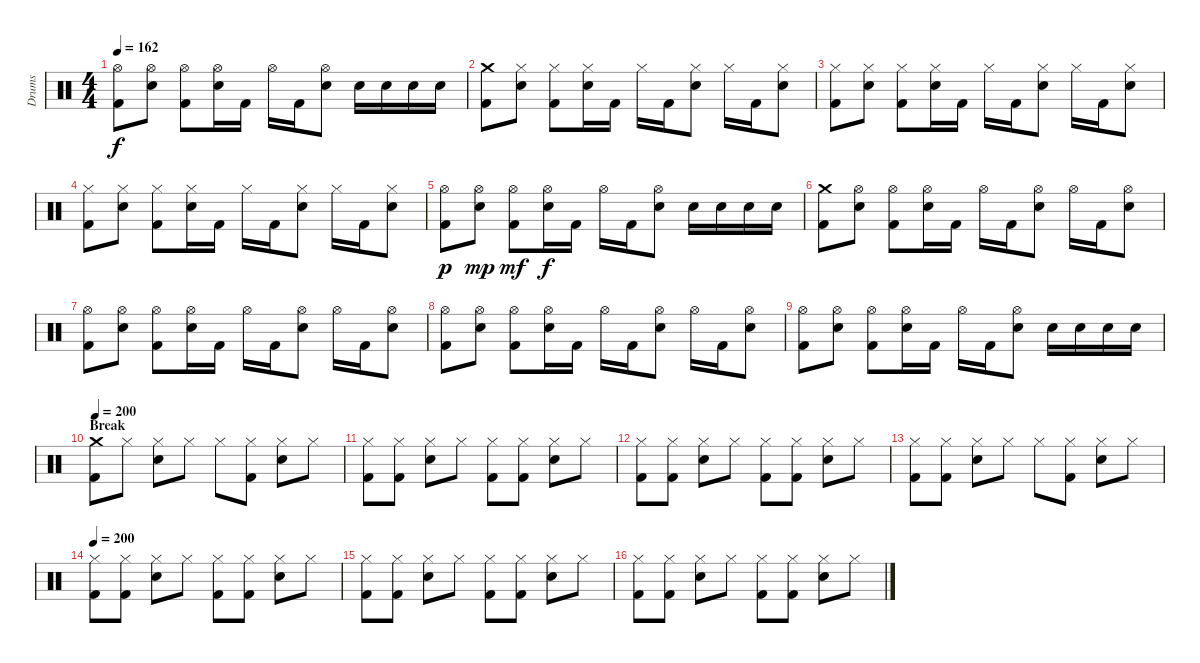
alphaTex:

\track ("Drums" "Drums") {instrument percussion}
\staff {score}
\articulation defaults
\ts (4 4)
\tempo 162
\clef neutral
\ks c
("Kick (hit) 2" "Hi-Hat (open)").8{dy f} ("Electric Snare (hit)" "Hi-Hat (open)").8 ("Kick (hit) 2" "Hi-Hat (open)").8 ("Electric Snare (hit)" "Hi-Hat (open)").16 "Kick (hit) 2".16 "Hi-Hat (open)".16 "Kick (hit) 2".16 ("Electric Snare (hit)" "Hi-Hat (open)").8 "Electric Snare (hit)".16 "Electric Snare (hit)".16 "Electric Snare (hit)".16 "Electric Snare (hit)".16 |
\section ("" "")
("Kick (hit) 2" "Crash medium (hit)").8 ("Electric Snare (hit)" "Hi-Hat (closed)").8 ("Kick (hit) 2" "Hi-Hat (closed)").8 ("Electric Snare (hit)" "Hi-Hat (closed)").16 "Kick (hit) 2".16 "Hi-Hat (closed)".16 "Kick (hit) 2".16 ("Electric Snare (hit)" "Hi-Hat (closed)").8 "Hi-Hat (closed)".16 "Kick (hit) 2".16 ("Electric Snare (hit)" "Hi-Hat (closed)").8 |
("Kick (hit) 2" "Hi-Hat (closed)").8 ("Electric Snare (hit)" "Hi-Hat (closed)").8 ("Kick (hit) 2" "Hi-Hat (closed)").8 ("Electric Snare (hit)" "Hi-Hat (closed)").16 "Kick (hit) 2".16 "Hi-Hat (closed)".16 "Kick (hit) 2".16 ("Electric Snare (hit)" "Hi-Hat (closed)").8 "Hi-Hat (closed)".16 "Kick (hit) 2".16 ("Electric Snare (hit)" "Hi-Hat (closed)").8 |
("Kick (hit) 2" "Hi-Hat (closed)").8 ("Electric Snare (hit)" "Hi-Hat (closed)").8 ("Kick (hit) 2" "Hi-Hat (closed)").8 ("Electric Snare (hit)" "Hi-Hat (closed)").16 "Kick (hit) 2".16 "Hi-Hat (closed)".16 "Kick (hit) 2".16 ("Electric Snare (hit)" "Hi-Hat (closed)").8 "Hi-Hat (closed)".16 "Kick (hit) 2".16 ("Electric Snare (hit)" "Hi-Hat (closed)").8 |
("Kick (hit) 2" "Hi-Hat (open)").8{dy p} ("Electric Snare (hit)" "Hi-Hat (open)").8{dy mp} ("Kick (hit) 2" "Hi-Hat (open)").8{dy mf} ("Electric Snare (hit)" "Hi-Hat (open)").16{dy f} "Kick (hit) 2".16 "Hi-Hat (open)".16 "Kick (hit) 2".16 ("Electric Snare (hit)" "Hi-Hat (open)").8 "Electric Snare (hit)".16 "Electric Snare (hit)".16 "Electric Snare (hit)".16 "Electric Snare (hit)".16 |
("Kick (hit) 2" "Crash medium (hit)").8 ("Electric Snare (hit)" "Hi-Hat (open)").8 ("Kick (hit) 2" "Hi-Hat (open)").8 ("Electric Snare (hit)" "Hi-Hat (open)").16 "Kick (hit) 2".16 "Hi-Hat (open)".16 "Kick (hit) 2".16 ("Electric Snare (hit)" "Hi-Hat (open)").8 "Hi-Hat (open)".16 "Kick (hit) 2".16 ("Electric Snare (hit)" "Hi-Hat (open)").8 |
("Kick (hit) 2" "Hi-Hat (open)").8 ("Electric Snare (hit)" "Hi-Hat (open)").8 ("Kick (hit) 2" "Hi-Hat (open)").8 ("Electric Snare (hit)" "Hi-Hat (open)").16 "Kick (hit) 2".16 "Hi-Hat (open)".16 "Kick (hit) 2".16 ("Electric Snare (hit)" "Hi-Hat (open)").8 "Hi-Hat (open)".16 "Kick (hit) 2".16 ("Electric Snare (hit)" "Hi-Hat (open)").8 |
("Kick (hit) 2" "Hi-Hat (open)").8 ("Electric Snare (hit)" "Hi-Hat (open)").8 ("Kick (hit) 2" "Hi-Hat (open)").8 ("Electric Snare (hit)" "Hi-Hat (open)").16 "Kick (hit) 2".16 "Hi-Hat (open)".16 "Kick (hit) 2".16 ("Electric Snare (hit)" "Hi-Hat (open)").8 "Hi-Hat (open)".16 "Kick (hit) 2".16 ("Electric Snare (hit)" "Hi-Hat (open)").8 |
("Kick (hit) 2" "Hi-Hat (open)").8 ("Electric Snare (hit)" "Hi-Hat (open)").8 ("Kick (hit) 2" "Hi-Hat (open)").8 ("Electric Snare (hit)" "Hi-Hat (open)").16 "Kick (hit) 2".16 "Hi-Hat (open)".16 "Kick (hit) 2".16 ("Electric Snare (hit)" "Hi-Hat (open)").8 "Electric Snare (hit)".16 "Electric Snare (hit)".16 "Electric Snare (hit)".16 "Electric Snare (hit)".16 |
\section ("" "Break")
\tempo 200
("Kick (hit) 2" "Crash medium (hit)").8 "Hi-Hat (closed)".8 ("Electric Snare (hit)" "Hi-Hat (closed)").8 "Hi-Hat (closed)".8 "Hi-Hat (closed)".8 ("Kick (hit) 2" "Hi-Hat (closed)").8 ("Electric Snare (hit)" "Hi-Hat (closed)").8 "Hi-Hat (closed)".8 |
("Kick (hit) 2" "Hi-Hat (closed)").8 ("Kick (hit) 2" "Hi-Hat (closed)").8 ("Electric Snare (hit)" "Hi-Hat (closed)").8 "Hi-Hat (closed)".8 ("Kick (hit) 2" "Hi-Hat (closed)").8 ("Kick (hit) 2" "Hi-Hat (closed)").8 ("Electric Snare (hit)" "Hi-Hat (closed)").8 "Hi-Hat (closed)".8 |
("Kick (hit) 2" "Hi-Hat (closed)").8 ("Kick (hit) 2" "Hi-Hat (closed)").8 ("Electric Snare (hit)" "Hi-Hat (closed)").8 "Hi-Hat (closed)".8 ("Kick (hit) 2" "Hi-Hat (closed)").8 ("Kick (hit) 2" "Hi-Hat (closed)").8 ("Electric Snare (hit)" "Hi-Hat (closed)").8 "Hi-Hat (closed)".8 |
("Kick (hit) 2" "Hi-Hat (closed)").8 ("Kick (hit) 2" "Hi-Hat (closed)").8 ("Electric Snare (hit)" "Hi-Hat (closed)").8 "Hi-Hat (closed)".8 "Hi-Hat (closed)".8 ("Kick (hit) 2" "Hi-Hat (closed)").8 ("Electric Snare (hit)" "Hi-Hat (closed)").8 "Hi-Hat (closed)".8 |
\section ("" "")
\tempo 200
("Kick (hit) 2" "Hi-Hat (closed)").8 ("Kick (hit) 2" "Hi-Hat (closed)").8 ("Electric Snare (hit)" "Hi-Hat (closed)").8 "Hi-Hat (closed)".8 ("Kick (hit) 2" "Hi-Hat (closed)").8 ("Kick (hit) 2" "Hi-Hat (closed)").8 ("Electric Snare (hit)" "Hi-Hat (closed)").8 "Hi-Hat (closed)".8 |
("Kick (hit) 2" "Hi-Hat (closed)").8 ("Kick (hit) 2" "Hi-Hat (closed)").8 ("Electric Snare (hit)" "Hi-Hat (closed)").8 "Hi-Hat (closed)".8 ("Kick (hit) 2" "Hi-Hat (closed)").8 ("Kick (hit) 2" "Hi-Hat (closed)").8 ("Electric Snare (hit)" "Hi-Hat (closed)").8 "Hi-Hat (closed)".8 |
("Kick (hit) 2" "Hi-Hat (closed)").8 ("Kick (hit) 2" "Hi-Hat (closed)").8 ("Electric Snare (hit)" "Hi-Hat (closed)").8 "Hi-Hat (closed)".8 ("Kick (hit) 2" "Hi-Hat (closed)").8 ("Kick (hit) 2" "Hi-Hat (closed)").8 ("Electric Snare (hit)" "Hi-Hat (closed)").8 "Hi-Hat (closed)".8
